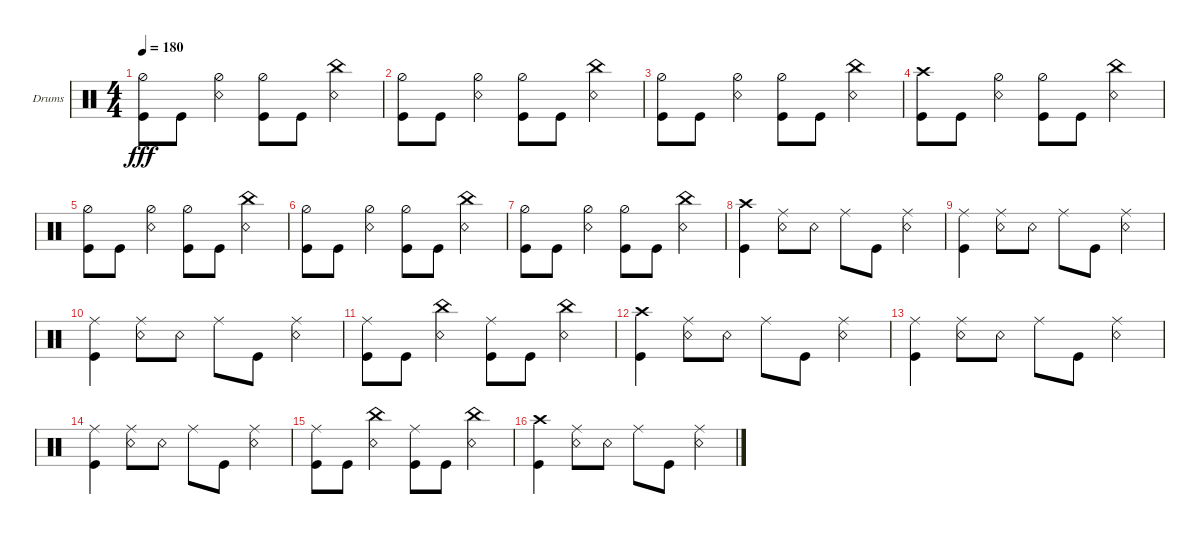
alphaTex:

\defaultSystemsLayout 4
\bracketExtendMode groupsimilarinstruments
\firstSystemTrackNameOrientation horizontal
\otherSystemsTrackNameOrientation horizontal
\track ("Drumkit" "Drums") {instrument percussion}
\staff {score}
\articulation defaults
\ts (4 4)
\tempo 180
\clef neutral
\ks c
("Kick (hit)" "Hi-Hat (half)").8{dy fff} "Kick (hit)".8 ("Snare (rim shot)" "Hi-Hat (half)").4 ("Kick (hit)" "Hi-Hat (half)").8 "Kick (hit)".8 ("Snare (rim shot)" "China (hit)").4 |
("Kick (hit)" "Hi-Hat (half)").8 "Kick (hit)".8 ("Snare (rim shot)" "Hi-Hat (half)").4 ("Kick (hit)" "Hi-Hat (half)").8 "Kick (hit)".8 ("Snare (rim shot)" "China (hit)").4 |
("Kick (hit)" "Hi-Hat (half)").8 "Kick (hit)".8 ("Snare (rim shot)" "Hi-Hat (half)").4 ("Kick (hit)" "Hi-Hat (half)").8 "Kick (hit)".8 ("Snare (rim shot)" "China (hit)").4 |
("Kick (hit)" "Crash high (hit)").8 "Kick (hit)".8 ("Snare (rim shot)" "Hi-Hat (half)").4 ("Kick (hit)" "Hi-Hat (half)").8 "Kick (hit)".8 ("Snare (rim shot)" "China (hit)").4 |
("Kick (hit)" "Hi-Hat (half)").8 "Kick (hit)".8 ("Snare (rim shot)" "Hi-Hat (half)").4 ("Kick (hit)" "Hi-Hat (half)").8 "Kick (hit)".8 ("Snare (rim shot)" "China (hit)").4 |
("Kick (hit)" "Hi-Hat (half)").8 "Kick (hit)".8 ("Snare (rim shot)" "Hi-Hat (half)").4 ("Kick (hit)" "Hi-Hat (half)").8 "Kick (hit)".8 ("Snare (rim shot)" "China (hit)").4 |
("Kick (hit)" "Hi-Hat (half)").8 "Kick (hit)".8 ("Snare (rim shot)" "Hi-Hat (half)").4 ("Kick (hit)" "Hi-Hat (half)").8 "Kick (hit)".8 ("Snare (rim shot)" "China (hit)").4 |
("Crash high (hit)" "Kick (hit)").4 ("Snare (rim shot)" "Ride (middle)").8 "Snare (rim shot)".8 "Ride (middle)".8 "Kick (hit)".8 ("Snare (rim shot)" "Ride (middle)").4 |
("Kick (hit)" "Ride (middle)").4 ("Snare (rim shot)" "Ride (middle)").8 "Snare (rim shot)".8 "Ride (middle)".8 "Kick (hit)".8 ("Snare (rim shot)" "Ride (middle)").4 |
("Kick (hit)" "Ride (middle)").4 ("Snare (rim shot)" "Ride (middle)").8 "Snare (rim shot)".8 "Ride (middle)".8 "Kick (hit)".8 ("Snare (rim shot)" "Ride (middle)").4 |
("Kick (hit)" "Ride (middle)").8 "Kick (hit)".8 ("Snare (rim shot)" "China (hit)").4 ("Kick (hit)" "Ride (middle)").8 "Kick (hit)".8 ("Snare (rim shot)" "China (hit)").4 |
("Crash high (hit)" "Kick (hit)").4 ("Snare (rim shot)" "Ride (middle)").8 "Snare (rim shot)".8 "Ride (middle)".8 "Kick (hit)".8 ("Snare (rim shot)" "Ride (middle)").4 |
("Kick (hit)" "Ride (middle)").4 ("Snare (rim shot)" "Ride (middle)").8 "Snare (rim shot)".8 "Ride (middle)".8 "Kick (hit)".8 ("Snare (rim shot)" "Ride (middle)").4 |
("Kick (hit)" "Ride (middle)").4 ("Snare (rim shot)" "Ride (middle)").8 "Snare (rim shot)".8 "Ride (middle)".8 "Kick (hit)".8 ("Snare (rim shot)" "Ride (middle)").4 |
("Kick (hit)" "Ride (middle)").8 "Kick (hit)".8 ("Snare (rim shot)" "China (hit)").4 ("Kick (hit)" "Ride (middle)").8 "Kick (hit)".8 ("Snare (rim shot)" "China (hit)").4 |
("Crash high (hit)" "Kick (hit)").4 ("Snare (rim shot)" "Ride (middle)").8 "Snare (rim shot)".8 "Ride (middle)".8 "Kick (hit)".8 ("Snare (rim shot)" "Ride (middle)").4
